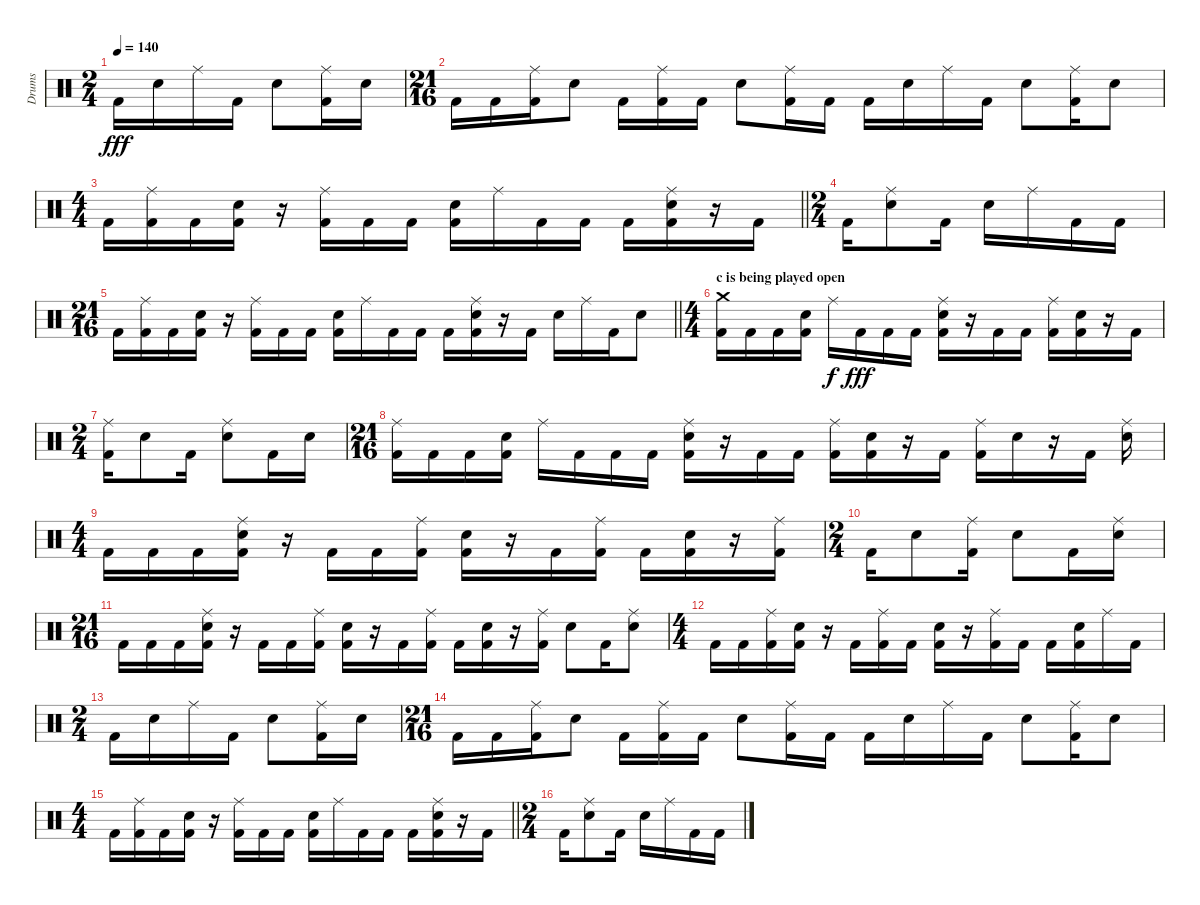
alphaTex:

\track ("Drums" "Drums") {instrument percussion}
\staff {score}
\articulation defaults
\ts (2 4)
\tempo 140
\clef neutral
\ks c "Kick (hit) 2".16{dy fff} "Electric Snare (hit)".16 "Ride (middle)".16 "Kick (hit) 2".16 "Electric Snare (hit)".8
("Ride (middle)" "Kick (hit) 2").16 "Electric Snare (hit)".16 |
\ts (21 16)
"Kick (hit) 2".16 "Kick (hit) 2".16 ("Ride (middle)" "Kick (hit) 2").16 "Electric Snare (hit)".8 "Kick (hit) 2".16 ("Ride (middle)" "Kick (hit) 2").16 "Kick (hit) 2".16 "Electric Snare (hit)".8 ("Ride (middle)" "Kick (hit) 2").16 "Kick (hit) 2".16 "Kick (hit) 2".16 "Electric Snare (hit)".16 "Ride (middle)".16 "Kick (hit) 2".16 "Electric Snare (hit)".8 ("Ride (middle)" "Kick (hit) 2").16 "Electric Snare (hit)".8 |
\ts (4 4)
\barLineRight lightlight "Kick (hit) 2".16
("Ride (middle)" "Kick (hit) 2").16 "Kick (hit) 2".16 ("Electric Snare (hit)" "Kick (hit) 2").16 r.16 ("Ride (middle)" "Kick (hit) 2").16 "Kick (hit) 2".16 "Kick (hit) 2".16 ("Electric Snare (hit)" "Kick (hit) 2").16 "Ride (middle)".16 "Kick (hit) 2".16 "Kick (hit) 2".16 "Kick (hit) 2".16 ("Ride (middle)" "Electric Snare (hit)" "Kick (hit) 2").16 r.16 "Kick (hit) 2".16 |
\ts (2 4)
"Kick (hit) 2".16 ("Ride (middle)" "Electric Snare (hit)").8 "Kick (hit) 2".16 "Electric Snare (hit)".16 "Ride (middle)".16 "Kick (hit) 2".16 "Kick (hit) 2".16 |
\ts (21 16)
\barLineRight lightlight "Kick (hit) 2".16
("Ride (middle)" "Kick (hit) 2").16 "Kick (hit) 2".16 ("Electric Snare (hit)" "Kick (hit) 2").16 r.16 ("Ride (middle)" "Kick (hit) 2").16 "Kick (hit) 2".16 "Kick (hit) 2".16 ("Electric Snare (hit)" "Kick (hit) 2").16 "Ride (middle)".16 "Kick (hit) 2".16 "Kick (hit) 2".16 "Kick (hit) 2".16 ("Ride (middle)" "Electric Snare (hit)" "Kick (hit) 2").16 r.16 "Kick (hit) 2".16 "Electric Snare (hit)".16 "Ride (middle)".16 "Kick (hit) 2".16 "Electric Snare (hit)".8 |
\ts (4 4)
\section ("" "c is being played open")
("Crash medium (hit)" "Kick (hit) 2").16 "Kick (hit) 2".16 "Kick (hit) 2".16 ("Electric Snare (hit)" "Kick (hit) 2").16 "Ride (middle)".16{dy f} "Kick (hit) 2".16{dy fff} "Kick (hit) 2".16 "Kick (hit) 2".16 ("Ride (middle)" "Electric Snare (hit)" "Kick (hit) 2").16 r.16 "Kick (hit) 2".16 "Kick (hit) 2".16 ("Ride (middle)" "Kick (hit) 2").16 ("Electric Snare (hit)" "Kick (hit) 2").16 r.16 "Kick (hit) 2".16 |
\ts (2 4)
("Ride (middle)" "Kick (hit) 2").16 "Electric Snare (hit)".8 "Kick (hit) 2".16 ("Ride (middle)" "Electric Snare (hit)").8 "Kick (hit) 2".16 "Electric Snare (hit)".16 |
\ts (21 16)
("Ride (middle)" "Kick (hit) 2").16 "Kick (hit) 2".16 "Kick (hit) 2".16 ("Electric Snare (hit)" "Kick (hit) 2").16 "Ride (middle)".16 "Kick (hit) 2".16 "Kick (hit) 2".16 "Kick (hit) 2".16 ("Ride (middle)" "Electric Snare (hit)" "Kick (hit) 2").16 r.16 "Kick (hit) 2".16 "Kick (hit) 2".16 ("Ride (middle)" "Kick (hit) 2").16 ("Electric Snare (hit)" "Kick (hit) 2").16 r.16 "Kick (hit) 2".16 ("Ride (middle)" "Kick (hit) 2").16 "Electric Snare (hit)".16 r.16 "Kick (hit) 2".16 ("Ride (middle)" "Electric Snare (hit)").16 |
\ts (4 4)
"Kick (hit) 2".16 "Kick (hit) 2".16 "Kick (hit) 2".16 ("Ride (middle)" "Electric Snare (hit)" "Kick (hit) 2").16 r.16 "Kick (hit) 2".16 "Kick (hit) 2".16 ("Ride (middle)" "Kick (hit) 2").16 ("Electric Snare (hit)" "Kick (hit) 2").16 r.16 "Kick (hit) 2".16 ("Ride (middle)" "Kick (hit) 2").16 "Kick (hit) 2".16 ("Electric Snare (hit)" "Kick (hit) 2").16 r.16 ("Ride (middle)" "Kick (hit) 2").16 |
\ts (2 4)
"Kick (hit) 2".16 "Electric Snare (hit)".8 ("Ride (middle)" "Kick (hit) 2").16 "Electric Snare (hit)".8 "Kick (hit) 2".16 ("Ride (middle)" "Electric Snare (hit)").16 |
\ts (21 16)
"Kick (hit) 2".16 "Kick (hit) 2".16 "Kick (hit) 2".16 ("Ride (middle)" "Electric Snare (hit)" "Kick (hit) 2").16 r.16 "Kick (hit) 2".16 "Kick (hit) 2".16 ("Ride (middle)" "Kick (hit) 2").16 ("Electric Snare (hit)" "Kick (hit) 2").16 r.16 "Kick (hit) 2".16 ("Ride (middle)" "Kick (hit) 2").16 "Kick (hit) 2".16 ("Electric Snare (hit)" "Kick (hit) 2").16 r.16 ("Ride (middle)" "Kick (hit) 2").16 "Electric Snare (hit)".8 "Kick (hit) 2".16 ("Ride (middle)" "Electric Snare (hit)").8 |
\ts (4 4)
"Kick (hit) 2".16 "Kick (hit) 2".16 ("Ride (middle)" "Kick (hit) 2").16 ("Electric Snare (hit)" "Kick (hit) 2").16 r.16 "Kick (hit) 2".16 ("Ride (middle)" "Kick (hit) 2").16 "Kick (hit) 2".16 ("Electric Snare (hit)" "Kick (hit) 2").16 r.16 ("Ride (middle)" "Kick (hit) 2").16 "Kick (hit) 2".16 "Kick (hit) 2".16 ("Electric Snare (hit)" "Kick (hit) 2").16 "Ride (middle)".16 "Kick (hit) 2".16 |
\ts (2 4)
"Kick (hit) 2".16 "Electric Snare (hit)".16 "Ride (middle)".16 "Kick (hit) 2".16 "Electric Snare (hit)".8 ("Ride (middle)" "Kick (hit) 2").16 "Electric Snare (hit)".16 |
\ts (21 16)
"Kick (hit) 2".16 "Kick (hit) 2".16 ("Ride (middle)" "Kick (hit) 2").16 "Electric Snare (hit)".8 "Kick (hit) 2".16 ("Ride (middle)" "Kick (hit) 2").16 "Kick (hit) 2".16 "Electric Snare (hit)".8 ("Ride (middle)" "Kick (hit) 2").16 "Kick (hit) 2".16 "Kick (hit) 2".16 "Electric Snare (hit)".16 "Ride (middle)".16 "Kick (hit) 2".16 "Electric Snare (hit)".8 ("Ride (middle)" "Kick (hit) 2").16 "Electric Snare (hit)".8 |
\ts (4 4)
\barLineRight lightlight "Kick (hit) 2".16
("Ride (middle)" "Kick (hit) 2").16 "Kick (hit) 2".16 ("Electric Snare (hit)" "Kick (hit) 2").16 r.16 ("Ride (middle)" "Kick (hit) 2").16 "Kick (hit) 2".16 "Kick (hit) 2".16 ("Electric Snare (hit)" "Kick (hit) 2").16 "Ride (middle)".16 "Kick (hit) 2".16 "Kick (hit) 2".16 "Kick (hit) 2".16 ("Ride (middle)" "Electric Snare (hit)" "Kick (hit) 2").16 r.16 "Kick (hit) 2".16 |
\ts (2 4)
"Kick (hit) 2".16 ("Ride (middle)" "Electric Snare (hit)").8 "Kick (hit) 2".16 "Electric Snare (hit)".16 "Ride (middle)".16 "Kick (hit) 2".16 "Kick (hit) 2".16
